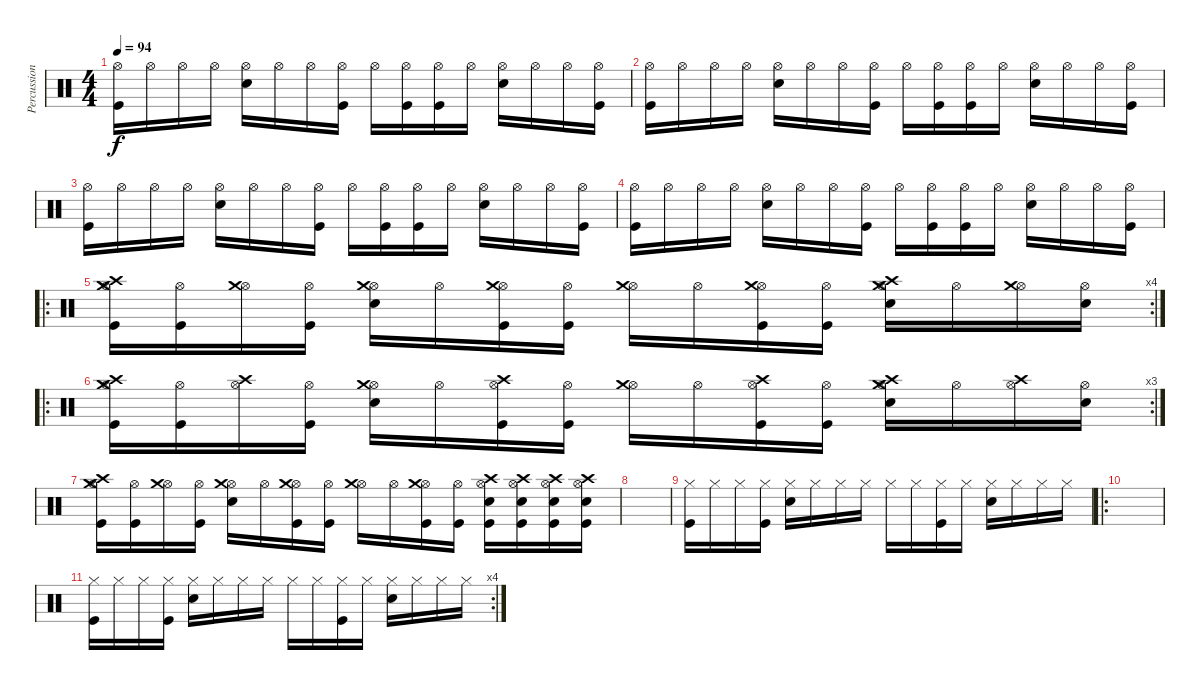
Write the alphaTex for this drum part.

\track ("Percussion" "Percussion") {instrument percussion}
\staff {score}
\articulation defaults
\ts (4 4)
\tempo 94
\clef neutral
\ks c
("Hi-Hat (open)" "Kick (hit)").16{dy f} "Hi-Hat (open)".16 "Hi-Hat (open)".16 "Hi-Hat (open)".16 ("Hi-Hat (open)" "Electric Snare (hit)").16 "Hi-Hat (open)".16 "Hi-Hat (open)".16 ("Hi-Hat (open)" "Kick (hit)").16 "Hi-Hat (open)".16 ("Hi-Hat (open)" "Kick (hit)").16 ("Hi-Hat (open)" "Kick (hit)").16 "Hi-Hat (open)".16 ("Hi-Hat (open)" "Electric Snare (hit)").16 "Hi-Hat (open)".16 "Hi-Hat (open)".16 ("Hi-Hat (open)" "Kick (hit)").16 |
("Hi-Hat (open)" "Kick (hit)").16 "Hi-Hat (open)".16 "Hi-Hat (open)".16 "Hi-Hat (open)".16 ("Hi-Hat (open)" "Electric Snare (hit)").16 "Hi-Hat (open)".16 "Hi-Hat (open)".16 ("Hi-Hat (open)" "Kick (hit)").16 "Hi-Hat (open)".16 ("Hi-Hat (open)" "Kick (hit)").16 ("Hi-Hat (open)" "Kick (hit)").16 "Hi-Hat (open)".16 ("Hi-Hat (open)" "Electric Snare (hit)").16 "Hi-Hat (open)".16 "Hi-Hat (open)".16 ("Hi-Hat (open)" "Kick (hit)").16 |
("Hi-Hat (open)" "Kick (hit)").16 "Hi-Hat (open)".16 "Hi-Hat (open)".16 "Hi-Hat (open)".16 ("Hi-Hat (open)" "Electric Snare (hit)").16 "Hi-Hat (open)".16 "Hi-Hat (open)".16 ("Hi-Hat (open)" "Kick (hit)").16 "Hi-Hat (open)".16 ("Hi-Hat (open)" "Kick (hit)").16 ("Hi-Hat (open)" "Kick (hit)").16 "Hi-Hat (open)".16 ("Hi-Hat (open)" "Electric Snare (hit)").16 "Hi-Hat (open)".16 "Hi-Hat (open)".16 ("Hi-Hat (open)" "Kick (hit)").16 |
("Hi-Hat (open)" "Kick (hit)").16 "Hi-Hat (open)".16 "Hi-Hat (open)".16 "Hi-Hat (open)".16 ("Hi-Hat (open)" "Electric Snare (hit)").16 "Hi-Hat (open)".16 "Hi-Hat (open)".16 ("Hi-Hat (open)" "Kick (hit)").16 "Hi-Hat (open)".16 ("Hi-Hat (open)" "Kick (hit)").16 ("Hi-Hat (open)" "Kick (hit)").16 "Hi-Hat (open)".16 ("Hi-Hat (open)" "Electric Snare (hit)").16 "Hi-Hat (open)".16 "Hi-Hat (open)".16 ("Hi-Hat (open)" "Kick (hit)").16 |
\ro
\rc 4
("Hi-Hat (open)" "Crash high (hit)" "Kick (hit)" "Crash medium (hit)").16 ("Hi-Hat (open)" "Kick (hit)").16 ("Hi-Hat (open)" "Crash medium (hit)").16 ("Hi-Hat (open)" "Kick (hit)").16 ("Hi-Hat (open)" "Electric Snare (hit)" "Crash medium (hit)").16 "Hi-Hat (open)".16 ("Hi-Hat (open)" "Kick (hit)" "Crash medium (hit)").16 ("Hi-Hat (open)" "Kick (hit)").16 ("Hi-Hat (open)" "Crash medium (hit)").16 "Hi-Hat (open)".16 ("Hi-Hat (open)" "Kick (hit)" "Crash medium (hit)").16 ("Hi-Hat (open)" "Kick (hit)").16 ("Hi-Hat (open)" "Crash high (hit)" "Electric Snare (hit)" "Crash medium (hit)").16 "Hi-Hat (open)".16 ("Hi-Hat (open)" "Crash medium (hit)").16 ("Hi-Hat (open)" "Electric Snare (hit)").16 |
\ro
\rc 3
("Hi-Hat (open)" "Crash high (hit)" "Kick (hit)" "Crash medium (hit)").16 ("Hi-Hat (open)" "Kick (hit)").16 ("Hi-Hat (open)" "Crash high (hit)").16 ("Hi-Hat (open)" "Kick (hit)").16 ("Hi-Hat (open)" "Electric Snare (hit)" "Crash medium (hit)").16 "Hi-Hat (open)".16 ("Hi-Hat (open)" "Kick (hit)" "Crash high (hit)").16 ("Hi-Hat (open)" "Kick (hit)").16 ("Hi-Hat (open)" "Crash medium (hit)").16 "Hi-Hat (open)".16 ("Hi-Hat (open)" "Kick (hit)" "Crash high (hit)").16 ("Hi-Hat (open)" "Kick (hit)").16 ("Hi-Hat (open)" "Crash high (hit)" "Electric Snare (hit)" "Crash medium (hit)").16 "Hi-Hat (open)".16 ("Hi-Hat (open)" "Crash high (hit)").16 ("Hi-Hat (open)" "Electric Snare (hit)").16 |
("Hi-Hat (open)" "Crash high (hit)" "Kick (hit)" "Crash medium (hit)").16 ("Hi-Hat (open)" "Kick (hit)").16 ("Hi-Hat (open)" "Crash medium (hit)").16 ("Hi-Hat (open)" "Kick (hit)").16 ("Hi-Hat (open)" "Electric Snare (hit)" "Crash medium (hit)").16 "Hi-Hat (open)".16 ("Hi-Hat (open)" "Kick (hit)" "Crash medium (hit)").16 ("Hi-Hat (open)" "Kick (hit)").16 ("Hi-Hat (open)" "Crash medium (hit)").16 "Hi-Hat (open)".16 ("Hi-Hat (open)" "Kick (hit)" "Crash medium (hit)").16 ("Hi-Hat (open)" "Kick (hit)").16 ("Hi-Hat (open)" "Crash high (hit)" "Electric Snare (hit)" "Kick (hit)").16 ("Hi-Hat (open)" "Crash high (hit)" "Electric Snare (hit)" "Kick (hit)").16 ("Hi-Hat (open)" "Crash high (hit)" "Electric Snare (hit)" "Kick (hit)").16 ("Hi-Hat (open)" "Crash high (hit)" "Electric Snare (hit)" "Kick (hit)").16 |
|
("Hi-Hat (closed)" "Kick (hit)").16 "Hi-Hat (closed)".16 "Hi-Hat (closed)".16 ("Hi-Hat (closed)" "Kick (hit)").16 ("Hi-Hat (closed)" "Electric Snare (hit)").16 "Hi-Hat (closed)".16 "Hi-Hat (closed)".16 "Hi-Hat (closed)".16 "Hi-Hat (closed)".16 "Hi-Hat (closed)".16 ("Hi-Hat (closed)" "Kick (hit)").16 "Hi-Hat (closed)".16 ("Hi-Hat (closed)" "Electric Snare (hit)").16 "Hi-Hat (closed)".16 "Hi-Hat (closed)".16 "Hi-Hat (closed)".16 |
\ro
|
\rc 4
("Hi-Hat (closed)" "Kick (hit)").16 "Hi-Hat (closed)".16 "Hi-Hat (closed)".16 ("Hi-Hat (closed)" "Kick (hit)").16 ("Hi-Hat (closed)" "Electric Snare (hit)").16 "Hi-Hat (closed)".16 "Hi-Hat (closed)".16 "Hi-Hat (closed)".16 "Hi-Hat (closed)".16 "Hi-Hat (closed)".16 ("Hi-Hat (closed)" "Kick (hit)").16 "Hi-Hat (closed)".16 ("Hi-Hat (closed)" "Electric Snare (hit)").16 "Hi-Hat (closed)".16 "Hi-Hat (closed)".16 "Hi-Hat (closed)".16
